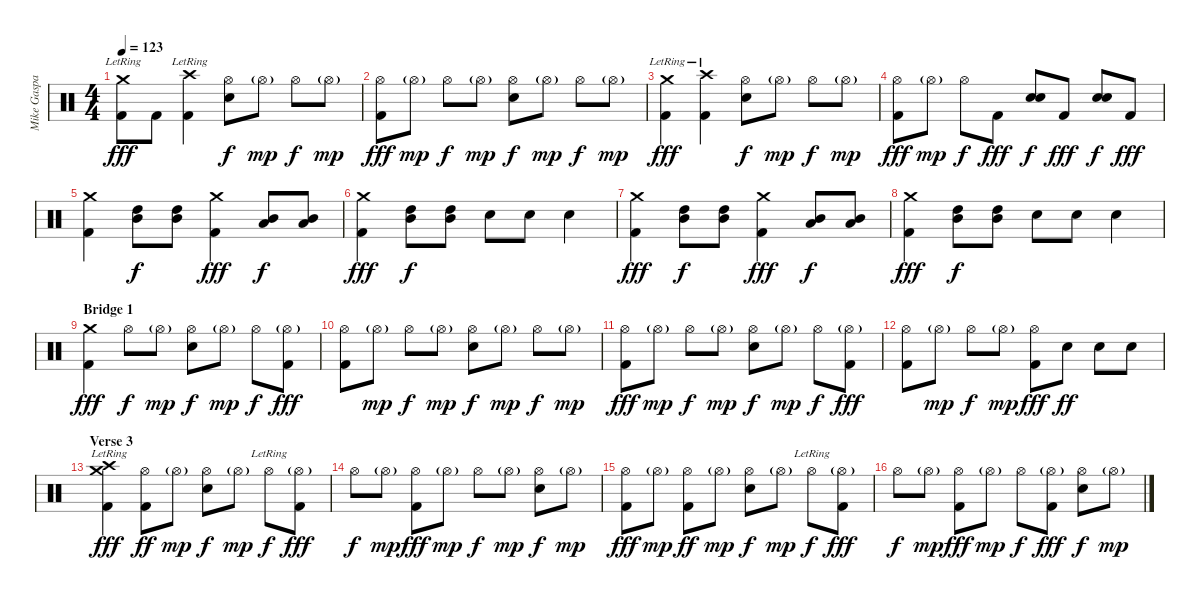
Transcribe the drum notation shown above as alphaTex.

\track ("Mike Gaspar (Drums)" "Mike Gaspa") {instrument percussion}
\staff {score}
\articulation defaults
\ts (4 4)
\tempo 123
\clef neutral
\ks c
("Crash medium (hit)"{lr} "Kick (hit) 2").8{dy fff} "Kick (hit) 2".8 ("Crash high (hit)"{lr} "Kick (hit) 2").4 ("Hi-Hat (open)" "Snare (hit) 2").8{dy f} "Hi-Hat (open)"{g}.8{dy mp} "Hi-Hat (open)".8{dy f} "Hi-Hat (open)"{g}.8{dy mp} |
("Hi-Hat (open)" "Kick (hit) 2").8{dy fff} "Hi-Hat (open)"{g}.8{dy mp} "Hi-Hat (open)".8{dy f} "Hi-Hat (open)"{g}.8{dy mp} ("Hi-Hat (open)" "Snare (hit) 2").8{dy f} "Hi-Hat (open)"{g}.8{dy mp} "Hi-Hat (open)".8{dy f} "Hi-Hat (open)"{g}.8{dy mp} |
("Crash medium (hit)"{lr} "Kick (hit) 2").4{dy fff} ("Crash high (hit)"{lr} "Kick (hit) 2").4 ("Hi-Hat (open)" "Snare (hit) 2").8{dy f} "Hi-Hat (open)"{g}.8{dy mp} "Hi-Hat (open)".8{dy f} "Hi-Hat (open)"{g}.8{dy mp} |
("Hi-Hat (open)" "Kick (hit) 2").8{dy fff} "Hi-Hat (open)"{g}.8{dy mp} "Hi-Hat (open)".8{dy f} "Kick (hit) 2".8{dy fff} ("Snare (hit) 2" "Snare (hit) 2").8{bd 30 dy f} "Kick (hit) 2".8{dy fff} ("Snare (hit) 2" "Snare (hit) 2").8{bd 30 dy f} "Kick (hit) 2".8{dy fff} |
("Crash medium (hit)" "Kick (hit) 2").4 ("High Tom (hit)" "Mid Tom (hit)").8{dy f} ("High Tom (hit)" "Mid Tom (hit)").8 ("Crash medium (hit)" "Kick (hit) 2").4{dy fff} ("Mid Tom (hit)" "Low Tom (hit)").8{dy f} ("Mid Tom (hit)" "Low Tom (hit)").8 |
("Crash medium (hit)" "Kick (hit) 2").4{dy fff} ("High Tom (hit)" "Mid Tom (hit)").8{dy f} ("High Tom (hit)" "Mid Tom (hit)").8 "Snare (hit) 2".8 "Snare (hit) 2".8 "Snare (hit) 2".4 |
("Crash medium (hit)" "Kick (hit) 2").4{dy fff} ("High Tom (hit)" "Mid Tom (hit)").8{dy f} ("High Tom (hit)" "Mid Tom (hit)").8 ("Crash medium (hit)" "Kick (hit) 2").4{dy fff} ("Mid Tom (hit)" "Low Tom (hit)").8{dy f} ("Mid Tom (hit)" "Low Tom (hit)").8 |
("Crash medium (hit)" "Kick (hit) 2").4{dy fff} ("High Tom (hit)" "Mid Tom (hit)").8{dy f} ("High Tom (hit)" "Mid Tom (hit)").8 "Snare (hit) 2".8 "Snare (hit) 2".8 "Snare (hit) 2".4 |
\section ("" "Bridge 1")
("Crash medium (hit)" "Kick (hit) 2").4{dy fff} "Hi-Hat (open)".8{dy f} "Hi-Hat (open)"{g}.8{dy mp} ("Hi-Hat (open)" "Snare (hit) 2").8{dy f} "Hi-Hat (open)"{g}.8{dy mp} "Hi-Hat (open)".8{dy f} ("Hi-Hat (open)"{g} "Kick (hit) 2").8{dy fff} |
("Hi-Hat (open)" "Kick (hit) 2").8 "Hi-Hat (open)"{g}.8{dy mp} "Hi-Hat (open)".8{dy f} "Hi-Hat (open)"{g}.8{dy mp} ("Hi-Hat (open)" "Snare (hit) 2").8{dy f} "Hi-Hat (open)"{g}.8{dy mp} "Hi-Hat (open)".8{dy f} "Hi-Hat (open)"{g}.8{dy mp} |
("Hi-Hat (open)" "Kick (hit) 2").8{dy fff} "Hi-Hat (open)"{g}.8{dy mp} "Hi-Hat (open)".8{dy f} "Hi-Hat (open)"{g}.8{dy mp} ("Hi-Hat (open)" "Snare (hit) 2").8{dy f} "Hi-Hat (open)"{g}.8{dy mp} "Hi-Hat (open)".8{dy f} ("Hi-Hat (open)"{g} "Kick (hit) 2").8{dy fff} |
("Hi-Hat (open)" "Kick (hit) 2").8 "Hi-Hat (open)"{g}.8{dy mp} "Hi-Hat (open)".8{dy f} "Hi-Hat (open)"{g}.8{dy mp} ("Hi-Hat (open)" "Kick (hit) 2").8{dy fff} "Snare (hit) 2".8{dy ff} "Snare (hit) 2".8 "Snare (hit) 2".8 |
\section ("" "Verse 3")
("Crash medium (hit)"{lr} "Crash high (hit)"{lr} "Kick (hit) 2").4{dy fff} ("Hi-Hat (open)" "Kick (hit) 2").8{dy ff} "Hi-Hat (open)"{g}.8{dy mp} ("Hi-Hat (open)" "Snare (hit) 2").8{dy f} "Hi-Hat (open)"{g}.8{dy mp} "Hi-Hat (open)"{lr}.8{dy f} ("Hi-Hat (open)"{g} "Kick (hit) 2").8{dy fff} |
"Hi-Hat (open)".8{dy f} "Hi-Hat (open)"{g}.8{dy mp} ("Hi-Hat (open)" "Kick (hit) 2").8{dy fff} "Hi-Hat (open)"{g}.8{dy mp} "Hi-Hat (open)".8{dy f} "Hi-Hat (open)"{g}.8{dy mp} ("Hi-Hat (open)" "Snare (hit) 2").8{dy f} "Hi-Hat (open)"{g}.8{dy mp} |
("Hi-Hat (open)" "Kick (hit) 2").8{dy fff} "Hi-Hat (open)"{g}.8{dy mp} ("Hi-Hat (open)" "Kick (hit) 2").8{dy ff} "Hi-Hat (open)"{g}.8{dy mp} ("Hi-Hat (open)" "Snare (hit) 2").8{dy f} "Hi-Hat (open)"{g}.8{dy mp} "Hi-Hat (open)"{lr}.8{dy f} ("Hi-Hat (open)"{g} "Kick (hit) 2").8{dy fff} |
"Hi-Hat (open)".8{dy f} "Hi-Hat (open)"{g}.8{dy mp} ("Hi-Hat (open)" "Kick (hit) 2").8{dy fff} "Hi-Hat (open)"{g}.8{dy mp} "Hi-Hat (open)".8{dy f} ("Hi-Hat (open)"{g} "Kick (hit) 2").8{dy fff} ("Hi-Hat (open)" "Snare (hit) 2").8{dy f} "Hi-Hat (open)"{g}.8{dy mp}
